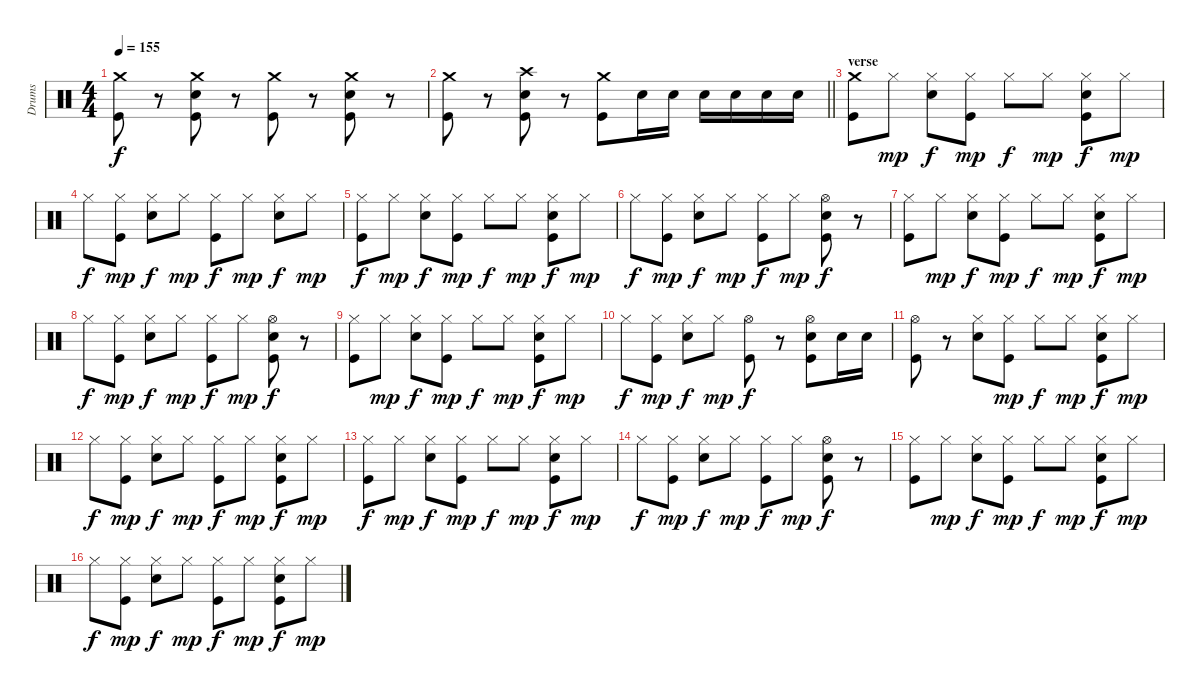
\track ("Drums" "Drums") {instrument percussion}
\staff {score}
\articulation defaults
\ts (4 4)
\tempo 155
\clef neutral
\ks c
("Crash medium (hit)" "Kick (hit)").8{dy f} r.8 ("Crash medium (hit)" "Electric Snare (hit)" "Kick (hit)").8 r.8 ("Crash medium (hit)" "Kick (hit)").8 r.8 ("Crash medium (hit)" "Electric Snare (hit)" "Kick (hit)").8 r.8 |
\barLineRight lightlight
("Crash medium (hit)" "Kick (hit)").8 r.8 ("Crash high (hit)" "Electric Snare (hit)" "Kick (hit)").8 r.8 ("Crash medium (hit)" "Kick (hit)").8 "Electric Snare (hit)".16 "Electric Snare (hit)".16 "Electric Snare (hit)".16 "Electric Snare (hit)".16 "Electric Snare (hit)".16 "Electric Snare (hit)".16 |
\section ("" "verse")
("Crash medium (hit)" "Kick (hit)").8 "Hi-Hat (closed)".8{dy mp} ("Hi-Hat (closed)" "Electric Snare (hit)").8{dy f} ("Hi-Hat (closed)" "Kick (hit)").8{dy mp} "Hi-Hat (closed)".8{dy f} "Hi-Hat (closed)".8{dy mp} ("Hi-Hat (closed)" "Electric Snare (hit)" "Kick (hit)").8{dy f} "Hi-Hat (closed)".8{dy mp} |
"Hi-Hat (closed)".8{dy f} ("Hi-Hat (closed)" "Kick (hit)").8{dy mp} ("Hi-Hat (closed)" "Electric Snare (hit)").8{dy f} "Hi-Hat (closed)".8{dy mp} ("Hi-Hat (closed)" "Kick (hit)").8{dy f} "Hi-Hat (closed)".8{dy mp} ("Hi-Hat (closed)" "Electric Snare (hit)").8{dy f} "Hi-Hat (closed)".8{dy mp} |
("Hi-Hat (closed)" "Kick (hit)").8{dy f} "Hi-Hat (closed)".8{dy mp} ("Hi-Hat (closed)" "Electric Snare (hit)").8{dy f} ("Hi-Hat (closed)" "Kick (hit)").8{dy mp} "Hi-Hat (closed)".8{dy f} "Hi-Hat (closed)".8{dy mp} ("Hi-Hat (closed)" "Electric Snare (hit)" "Kick (hit)").8{dy f} "Hi-Hat (closed)".8{dy mp} |
"Hi-Hat (closed)".8{dy f} ("Hi-Hat (closed)" "Kick (hit)").8{dy mp} ("Hi-Hat (closed)" "Electric Snare (hit)").8{dy f} "Hi-Hat (closed)".8{dy mp} ("Hi-Hat (closed)" "Kick (hit)").8{dy f} "Hi-Hat (closed)".8{dy mp} ("Hi-Hat (open)" "Electric Snare (hit)" "Kick (hit)").8{dy f} r.8 |
("Hi-Hat (closed)" "Kick (hit)").8 "Hi-Hat (closed)".8{dy mp} ("Hi-Hat (closed)" "Electric Snare (hit)").8{dy f} ("Hi-Hat (closed)" "Kick (hit)").8{dy mp} "Hi-Hat (closed)".8{dy f} "Hi-Hat (closed)".8{dy mp} ("Hi-Hat (closed)" "Electric Snare (hit)" "Kick (hit)").8{dy f} "Hi-Hat (closed)".8{dy mp} |
"Hi-Hat (closed)".8{dy f} ("Hi-Hat (closed)" "Kick (hit)").8{dy mp} ("Hi-Hat (closed)" "Electric Snare (hit)").8{dy f} "Hi-Hat (closed)".8{dy mp} ("Hi-Hat (closed)" "Kick (hit)").8{dy f} "Hi-Hat (closed)".8{dy mp} ("Hi-Hat (open)" "Electric Snare (hit)" "Kick (hit)").8{dy f} r.8 |
("Hi-Hat (closed)" "Kick (hit)").8 "Hi-Hat (closed)".8{dy mp} ("Hi-Hat (closed)" "Electric Snare (hit)").8{dy f} ("Hi-Hat (closed)" "Kick (hit)").8{dy mp} "Hi-Hat (closed)".8{dy f} "Hi-Hat (closed)".8{dy mp} ("Hi-Hat (closed)" "Electric Snare (hit)" "Kick (hit)").8{dy f} "Hi-Hat (closed)".8{dy mp} |
"Hi-Hat (closed)".8{dy f} ("Hi-Hat (closed)" "Kick (hit)").8{dy mp} ("Hi-Hat (closed)" "Electric Snare (hit)").8{dy f} "Hi-Hat (closed)".8{dy mp} ("Hi-Hat (open)" "Kick (hit)").8{dy f} r.8 ("Hi-Hat (open)" "Electric Snare (hit)" "Kick (hit)").8 "Electric Snare (hit)".16 "Electric Snare (hit)".16 |
("Hi-Hat (open)" "Kick (hit)").8 r.8 ("Hi-Hat (closed)" "Electric Snare (hit)").8 ("Hi-Hat (closed)" "Kick (hit)").8{dy mp} "Hi-Hat (closed)".8{dy f} "Hi-Hat (closed)".8{dy mp} ("Hi-Hat (closed)" "Electric Snare (hit)" "Kick (hit)").8{dy f} "Hi-Hat (closed)".8{dy mp} |
"Hi-Hat (closed)".8{dy f} ("Hi-Hat (closed)" "Kick (hit)").8{dy mp} ("Hi-Hat (closed)" "Electric Snare (hit)").8{dy f} "Hi-Hat (closed)".8{dy mp} ("Hi-Hat (closed)" "Kick (hit)").8{dy f} "Hi-Hat (closed)".8{dy mp} ("Hi-Hat (closed)" "Electric Snare (hit)" "Kick (hit)").8{dy f} "Hi-Hat (closed)".8{dy mp} |
("Hi-Hat (closed)" "Kick (hit)").8{dy f} "Hi-Hat (closed)".8{dy mp} ("Hi-Hat (closed)" "Electric Snare (hit)").8{dy f} ("Hi-Hat (closed)" "Kick (hit)").8{dy mp} "Hi-Hat (closed)".8{dy f} "Hi-Hat (closed)".8{dy mp} ("Hi-Hat (closed)" "Electric Snare (hit)" "Kick (hit)").8{dy f} "Hi-Hat (closed)".8{dy mp} |
"Hi-Hat (closed)".8{dy f} ("Hi-Hat (closed)" "Kick (hit)").8{dy mp} ("Hi-Hat (closed)" "Electric Snare (hit)").8{dy f} "Hi-Hat (closed)".8{dy mp} ("Hi-Hat (closed)" "Kick (hit)").8{dy f} "Hi-Hat (closed)".8{dy mp} ("Hi-Hat (open)" "Electric Snare (hit)" "Kick (hit)").8{dy f} r.8 |
("Hi-Hat (closed)" "Kick (hit)").8 "Hi-Hat (closed)".8{dy mp} ("Hi-Hat (closed)" "Electric Snare (hit)").8{dy f} ("Hi-Hat (closed)" "Kick (hit)").8{dy mp} "Hi-Hat (closed)".8{dy f} "Hi-Hat (closed)".8{dy mp} ("Hi-Hat (closed)" "Electric Snare (hit)" "Kick (hit)").8{dy f} "Hi-Hat (closed)".8{dy mp} |
"Hi-Hat (closed)".8{dy f} ("Hi-Hat (closed)" "Kick (hit)").8{dy mp} ("Hi-Hat (closed)" "Electric Snare (hit)").8{dy f} "Hi-Hat (closed)".8{dy mp} ("Hi-Hat (closed)" "Kick (hit)").8{dy f} "Hi-Hat (closed)".8{dy mp} ("Hi-Hat (closed)" "Electric Snare (hit)" "Kick (hit)").8{dy f} "Hi-Hat (closed)".8{dy mp}
